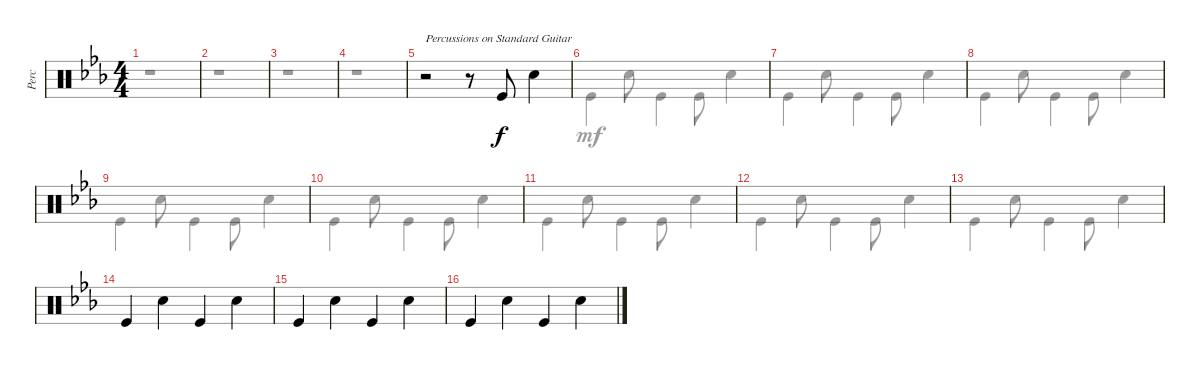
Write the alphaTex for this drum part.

\defaultSystemsLayout 4
\bracketExtendMode groupsimilarinstruments
\otherSystemsTrackNameOrientation horizontal
\track ("Percussions" "Perc") {instrument percussion}
\staff {score}
\articulation defaults
\voice
\ts (4 4)
\tempo (140 hide)
\clef neutral
\ks cminor
|
|
|
|
r.2{txt "Percussions on Standard Guitar"} r.8 "Kick (hit)".8 "Snare (hit) 2".4 |
|
|
|
|
|
|
|
|
"Kick (hit)".4 "Snare (hit) 2".4 "Kick (hit)".4 "Snare (hit) 2".4 |
"Kick (hit)".4 "Snare (hit) 2".4 "Kick (hit)".4 "Snare (hit) 2".4 |
"Kick (hit)".4 "Snare (hit) 2".4 "Kick (hit)".4 "Snare (hit) 2".4
\voice
\clef neutral
\ottava regular
\simile none
\ks cminor
r.1{dy mf} |
r.1 |
r.1 |
r.1 |
|
"Kick (hit)".4 "Snare (hit) 2".8 "Kick (hit)".4 "Kick (hit)".8 "Snare (hit) 2".4 |
"Kick (hit)".4 "Snare (hit) 2".8 "Kick (hit)".4 "Kick (hit)".8 "Snare (hit) 2".4 |
"Kick (hit)".4 "Snare (hit) 2".8 "Kick (hit)".4 "Kick (hit)".8 "Snare (hit) 2".4 |
"Kick (hit)".4 "Snare (hit) 2".8 "Kick (hit)".4 "Kick (hit)".8 "Snare (hit) 2".4 |
"Kick (hit)".4 "Snare (hit) 2".8 "Kick (hit)".4 "Kick (hit)".8 "Snare (hit) 2".4 |
"Kick (hit)".4 "Snare (hit) 2".8 "Kick (hit)".4 "Kick (hit)".8 "Snare (hit) 2".4 |
"Kick (hit)".4 "Snare (hit) 2".8 "Kick (hit)".4 "Kick (hit)".8 "Snare (hit) 2".4 |
"Kick (hit)".4 "Snare (hit) 2".8 "Kick (hit)".4 "Kick (hit)".8 "Snare (hit) 2".4 |
|
|
